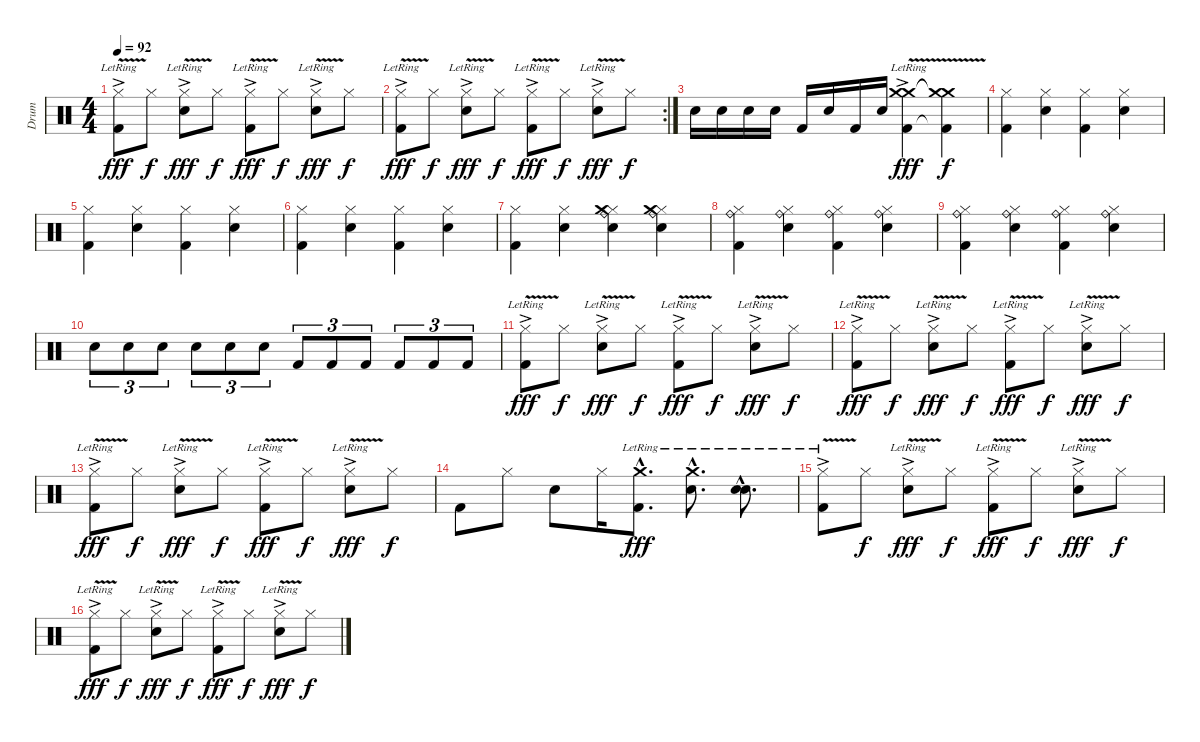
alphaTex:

\track ("Drum" "Drum") {instrument percussion}
\staff {score}
\articulation defaults
\ts (4 4)
\tempo 92
\clef neutral
\ks c
("Hi-Hat (closed)" "Kick (hit) 2"{v ac lr}).8{dy fff} "Hi-Hat (closed)".8{dy f} ("Hi-Hat (closed)" "Electric Snare (hit)"{v ac lr}).8{dy fff} "Hi-Hat (closed)".8{dy f} ("Hi-Hat (closed)" "Kick (hit) 2"{v ac lr}).8{dy fff} "Hi-Hat (closed)".8{dy f} ("Hi-Hat (closed)" "Electric Snare (hit)"{v ac lr}).8{dy fff} "Hi-Hat (closed)".8{dy f} |
\rc 2
("Hi-Hat (closed)" "Kick (hit) 2"{v ac lr}).8{dy fff} "Hi-Hat (closed)".8{dy f} ("Hi-Hat (closed)" "Electric Snare (hit)"{v ac lr}).8{dy fff} "Hi-Hat (closed)".8{dy f} ("Hi-Hat (closed)" "Kick (hit) 2"{v ac lr}).8{dy fff} "Hi-Hat (closed)".8{dy f} ("Hi-Hat (closed)" "Electric Snare (hit)"{v ac lr}).8{dy fff} "Hi-Hat (closed)".8{dy f} |
"Electric Snare (hit)".16 "Electric Snare (hit)".16 "Electric Snare (hit)".16 "Electric Snare (hit)".16 "Kick (hit) 2".16 "Electric Snare (hit)".16 "Kick (hit) 2".16 "Electric Snare (hit)".16 ("Crash medium (hit)"{v ac lr} "Crash medium (hit)"{ac lr} "Kick (hit) 2").4{dy fff} ("Crash medium (hit)"{t} "Crash medium (hit)"{t} "Kick (hit) 2"{t}).4{dy f} |
("Hi-Hat (closed)" "Kick (hit) 2").4 ("Hi-Hat (closed)" "Electric Snare (hit)").4 ("Hi-Hat (closed)" "Kick (hit) 2").4 ("Hi-Hat (closed)" "Electric Snare (hit)").4 |
("Hi-Hat (closed)" "Kick (hit) 2").4 ("Hi-Hat (closed)" "Electric Snare (hit)").4 ("Hi-Hat (closed)" "Kick (hit) 2").4 ("Hi-Hat (closed)" "Electric Snare (hit)").4 |
("Hi-Hat (closed)" "Kick (hit) 2").4 ("Hi-Hat (closed)" "Electric Snare (hit)").4 ("Hi-Hat (closed)" "Kick (hit) 2").4 ("Hi-Hat (closed)" "Electric Snare (hit)").4 |
("Hi-Hat (closed)" "Kick (hit) 2").4 ("Hi-Hat (closed)" "Electric Snare (hit)").4 ("Hi-Hat (closed)" "Ride (bell)" "Crash medium (hit)" "Electric Snare (hit)").4 ("Hi-Hat (closed)" "Ride (bell)" "Crash medium (hit)" "Electric Snare (hit)").4 |
("Hi-Hat (closed)" "Ride (bell)" "Kick (hit) 2").4 ("Hi-Hat (closed)" "Ride (bell)" "Electric Snare (hit)").4 ("Hi-Hat (closed)" "Ride (bell)" "Kick (hit) 2").4 ("Hi-Hat (closed)" "Ride (bell)" "Electric Snare (hit)").4 |
("Hi-Hat (closed)" "Ride (bell)" "Kick (hit) 2").4 ("Hi-Hat (closed)" "Ride (bell)" "Electric Snare (hit)").4 ("Hi-Hat (closed)" "Ride (bell)" "Kick (hit) 2").4 ("Hi-Hat (closed)" "Ride (bell)" "Electric Snare (hit)").4 |
"Electric Snare (hit)".8{tu (3 2)} "Electric Snare (hit)".8{tu (3 2)} "Electric Snare (hit)".8{tu (3 2)} "Electric Snare (hit)".8{tu (3 2)} "Electric Snare (hit)".8{tu (3 2)} "Electric Snare (hit)".8{tu (3 2)} "Kick (hit) 2".8{tu (3 2)} "Kick (hit) 2".8{tu (3 2)} "Kick (hit) 2".8{tu (3 2)} "Kick (hit) 2".8{tu (3 2)} "Kick (hit) 2".8{tu (3 2)} "Kick (hit) 2".8{tu (3 2)} |
("Hi-Hat (closed)" "Kick (hit) 2"{v ac lr}).8{dy fff} "Hi-Hat (closed)".8{dy f} ("Hi-Hat (closed)" "Electric Snare (hit)"{v ac lr}).8{dy fff} "Hi-Hat (closed)".8{dy f} ("Hi-Hat (closed)" "Kick (hit) 2"{v ac lr}).8{dy fff} "Hi-Hat (closed)".8{dy f} ("Hi-Hat (closed)" "Electric Snare (hit)"{v ac lr}).8{dy fff} "Hi-Hat (closed)".8{dy f} |
("Hi-Hat (closed)" "Kick (hit) 2"{v ac lr}).8{dy fff} "Hi-Hat (closed)".8{dy f} ("Hi-Hat (closed)" "Electric Snare (hit)"{v ac lr}).8{dy fff} "Hi-Hat (closed)".8{dy f} ("Hi-Hat (closed)" "Kick (hit) 2"{v ac lr}).8{dy fff} "Hi-Hat (closed)".8{dy f} ("Hi-Hat (closed)" "Electric Snare (hit)"{v ac lr}).8{dy fff} "Hi-Hat (closed)".8{dy f} |
("Hi-Hat (closed)" "Kick (hit) 2"{v ac lr}).8{dy fff} "Hi-Hat (closed)".8{dy f} ("Hi-Hat (closed)" "Electric Snare (hit)"{v ac lr}).8{dy fff} "Hi-Hat (closed)".8{dy f} ("Hi-Hat (closed)" "Kick (hit) 2"{v ac lr}).8{dy fff} "Hi-Hat (closed)".8{dy f} ("Hi-Hat (closed)" "Electric Snare (hit)"{v ac lr}).8{dy fff} "Hi-Hat (closed)".8{dy f} |
"Kick (hit) 2".8 "Hi-Hat (closed)".8 "Electric Snare (hit)".8 "Hi-Hat (closed)".16 ("Crash medium (hit)"{hac lr} "Kick (hit) 2"{hac lr}).8{d dy fff} ("Crash medium (hit)"{hac lr} "Electric Snare (hit)"{hac lr}).8{d} ("Electric Snare (hit)"{nh hac lr} "Electric Snare (hit)"{nh hac lr}).8{d} |
("Hi-Hat (closed)" "Kick (hit) 2"{v ac lr}).8 "Hi-Hat (closed)".8{dy f} ("Hi-Hat (closed)" "Electric Snare (hit)"{v ac lr}).8{dy fff} "Hi-Hat (closed)".8{dy f} ("Hi-Hat (closed)" "Kick (hit) 2"{v ac lr}).8{dy fff} "Hi-Hat (closed)".8{dy f} ("Hi-Hat (closed)" "Electric Snare (hit)"{v ac lr}).8{dy fff} "Hi-Hat (closed)".8{dy f} |
("Hi-Hat (closed)" "Kick (hit) 2"{v ac lr}).8{dy fff} "Hi-Hat (closed)".8{dy f} ("Hi-Hat (closed)" "Electric Snare (hit)"{v ac lr}).8{dy fff} "Hi-Hat (closed)".8{dy f} ("Hi-Hat (closed)" "Kick (hit) 2"{v ac lr}).8{dy fff} "Hi-Hat (closed)".8{dy f} ("Hi-Hat (closed)" "Electric Snare (hit)"{v ac lr}).8{dy fff} "Hi-Hat (closed)".8{dy f}
